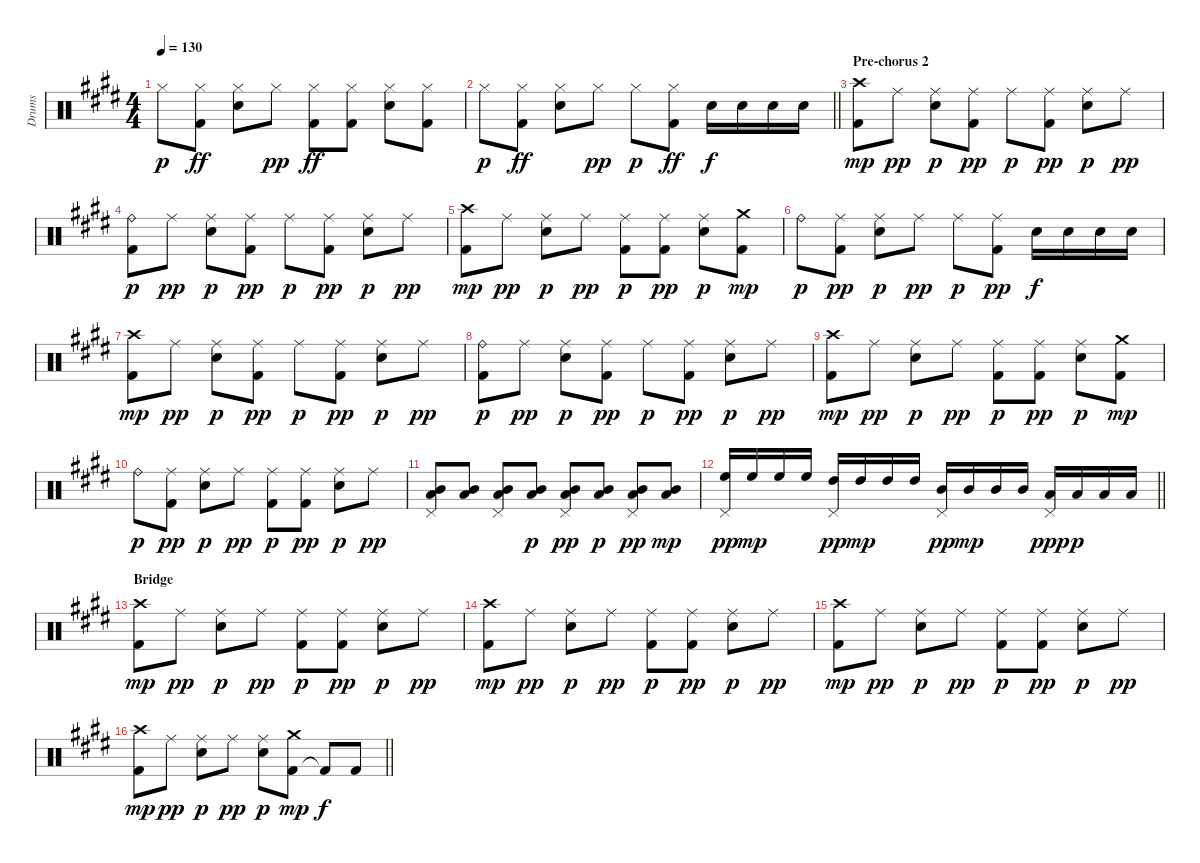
\track ("Drums" "Drums") {instrument percussion}
\staff {score}
\articulation defaults
\ts (4 4)
\tempo 130
\clef neutral
\ks e "Hi-Hat (closed)".8{dy p}
("Hi-Hat (closed)" "Kick (hit) 2").8{dy ff} ("Hi-Hat (closed)" "Electric Snare (hit)").8 "Hi-Hat (closed)".8{dy pp} ("Hi-Hat (closed)" "Kick (hit) 2").8{dy ff} ("Hi-Hat (closed)" "Kick (hit) 2").8 ("Hi-Hat (closed)" "Electric Snare (hit)").8 ("Hi-Hat (closed)" "Kick (hit) 2").8 |
\barLineRight lightlight
\ks c#minor "Hi-Hat (closed)".8{dy p}
("Hi-Hat (closed)" "Kick (hit) 2").8{dy ff} ("Hi-Hat (closed)" "Electric Snare (hit)").8 "Hi-Hat (closed)".8{dy pp} "Hi-Hat (closed)".8{dy p} ("Hi-Hat (closed)" "Kick (hit) 2").8{dy ff} "Electric Snare (hit)".16{dy f} "Electric Snare (hit)".16 "Electric Snare (hit)".16 "Electric Snare (hit)".16 |
\section ("" "Pre-chorus 2")
\ks e
("Crash high (hit)" "Kick (hit) 2").8{dy mp} "Ride (middle)".8{dy pp} ("Ride (middle)" "Electric Snare (hit)").8{dy p} ("Ride (middle)" "Kick (hit) 2").8{dy pp} "Ride (middle)".8{dy p} ("Ride (middle)" "Kick (hit) 2").8{dy pp} ("Ride (middle)" "Electric Snare (hit)").8{dy p} "Ride (middle)".8{dy pp} |
\ks c#minor
("Ride (bell)" "Kick (hit) 2").8{dy p} "Ride (middle)".8{dy pp} ("Ride (middle)" "Electric Snare (hit)").8{dy p} ("Ride (middle)" "Kick (hit) 2").8{dy pp} "Ride (middle)".8{dy p} ("Ride (middle)" "Kick (hit) 2").8{dy pp} ("Ride (middle)" "Electric Snare (hit)").8{dy p} "Ride (middle)".8{dy pp} |
\ks e
("Crash high (hit)" "Kick (hit) 2").8{dy mp} "Ride (middle)".8{dy pp} ("Ride (middle)" "Electric Snare (hit)").8{dy p} "Ride (middle)".8{dy pp} ("Ride (middle)" "Kick (hit) 2").8{dy p} ("Ride (middle)" "Kick (hit) 2").8{dy pp} ("Ride (middle)" "Electric Snare (hit)").8{dy p} ("Crash medium (hit)" "Kick (hit) 2").8{dy mp} |
\ks c#minor "Ride (bell)".8{dy p}
("Ride (middle)" "Kick (hit) 2").8{dy pp} ("Ride (middle)" "Electric Snare (hit)").8{dy p} "Ride (middle)".8{dy pp} "Ride (middle)".8{dy p} ("Ride (middle)" "Kick (hit) 2").8{dy pp} "Electric Snare (hit)".16{dy f} "Electric Snare (hit)".16 "Electric Snare (hit)".16 "Electric Snare (hit)".16 |
\ks e
("Crash high (hit)" "Kick (hit) 2").8{dy mp} "Ride (middle)".8{dy pp} ("Ride (middle)" "Electric Snare (hit)").8{dy p} ("Ride (middle)" "Kick (hit) 2").8{dy pp} "Ride (middle)".8{dy p} ("Ride (middle)" "Kick (hit) 2").8{dy pp} ("Ride (middle)" "Electric Snare (hit)").8{dy p} "Ride (middle)".8{dy pp} |
\ks c#minor
("Ride (bell)" "Kick (hit) 2").8{dy p} "Ride (middle)".8{dy pp} ("Ride (middle)" "Electric Snare (hit)").8{dy p} ("Ride (middle)" "Kick (hit) 2").8{dy pp} "Ride (middle)".8{dy p} ("Ride (middle)" "Kick (hit) 2").8{dy pp} ("Ride (middle)" "Electric Snare (hit)").8{dy p} "Ride (middle)".8{dy pp} |
\ks e
("Crash high (hit)" "Kick (hit) 2").8{dy mp} "Ride (middle)".8{dy pp} ("Ride (middle)" "Electric Snare (hit)").8{dy p} "Ride (middle)".8{dy pp} ("Ride (middle)" "Kick (hit) 2").8{dy p} ("Ride (middle)" "Kick (hit) 2").8{dy pp} ("Ride (middle)" "Electric Snare (hit)").8{dy p} ("Crash medium (hit)" "Kick (hit) 2").8{dy mp} |
\ks c#minor "Ride (bell)".8{dy p}
("Ride (middle)" "Kick (hit) 2").8{dy pp} ("Ride (middle)" "Electric Snare (hit)").8{dy p} "Ride (middle)".8{dy pp} ("Ride (middle)" "Kick (hit) 2").8{dy p} ("Ride (middle)" "Kick (hit) 2").8{dy pp} ("Ride (middle)" "Electric Snare (hit)").8{dy p} "Ride (middle)".8{dy pp} |
\ks e
("Mid Tom (hit)" "Low Tom (hit)" "Pedal Hi-Hat (hit)").8 ("Low Tom (hit)" "Mid Tom (hit)").8 ("Low Tom (hit)" "Mid Tom (hit)" "Pedal Hi-Hat (hit)").8 ("Low Tom (hit)" "Mid Tom (hit)").8{dy p} ("Low Tom (hit)" "Mid Tom (hit)" "Pedal Hi-Hat (hit)").8{dy pp} ("Low Tom (hit)" "Mid Tom (hit)").8{dy p} ("Low Tom (hit)" "Mid Tom (hit)" "Pedal Hi-Hat (hit)").8{dy pp} ("Low Tom (hit)" "Mid Tom (hit)").8{dy mp} |
\barLineRight lightlight
\ks c#minor
("High Floor Tom (hit)" "Pedal Hi-Hat (hit)").16{dy pp} "High Floor Tom (hit)".16{dy mp} "High Floor Tom (hit)".16 "High Floor Tom (hit)".16 ("High Tom (hit)" "Pedal Hi-Hat (hit)").16{dy pp} "High Tom (hit)".16{dy mp} "High Tom (hit)".16 "High Tom (hit)".16 ("Mid Tom (hit)" "Pedal Hi-Hat (hit)").16{dy pp} "Mid Tom (hit)".16{dy mp} "Mid Tom (hit)".16 "Mid Tom (hit)".16 ("Low Tom (hit)" "Pedal Hi-Hat (hit)").16{dy ppp} "Low Tom (hit)".16{dy p} "Low Tom (hit)".16 "Low Tom (hit)".16 |
\section ("" "Bridge")
\ks e
("Crash high (hit)" "Kick (hit) 2").8{dy mp} "Ride (middle)".8{dy pp} ("Ride (middle)" "Electric Snare (hit)").8{dy p} "Ride (middle)".8{dy pp} ("Ride (middle)" "Kick (hit) 2").8{dy p} ("Ride (middle)" "Kick (hit) 2").8{dy pp} ("Ride (middle)" "Electric Snare (hit)").8{dy p} "Ride (middle)".8{dy pp} |
\ks c#minor
("Crash high (hit)" "Kick (hit) 2").8{dy mp} "Ride (middle)".8{dy pp} ("Ride (middle)" "Electric Snare (hit)").8{dy p} "Ride (middle)".8{dy pp} ("Ride (middle)" "Kick (hit) 2").8{dy p} ("Ride (middle)" "Kick (hit) 2").8{dy pp} ("Ride (middle)" "Electric Snare (hit)").8{dy p} "Ride (middle)".8{dy pp} |
\ks e
("Crash high (hit)" "Kick (hit) 2").8{dy mp} "Ride (middle)".8{dy pp} ("Ride (middle)" "Electric Snare (hit)").8{dy p} "Ride (middle)".8{dy pp} ("Ride (middle)" "Kick (hit) 2").8{dy p} ("Ride (middle)" "Kick (hit) 2").8{dy pp} ("Ride (middle)" "Electric Snare (hit)").8{dy p} "Ride (middle)".8{dy pp} |
\barLineRight lightlight
\ks c#minor
("Crash high (hit)" "Kick (hit) 2").8{dy mp} "Ride (middle)".8{dy pp} ("Ride (middle)" "Electric Snare (hit)").8{dy p} "Ride (middle)".8{dy pp} ("Ride (middle)" "Electric Snare (hit)").8{dy p} ("Kick (hit) 2" "Crash medium (hit)").8{dy mp} "Kick (hit) 2"{t}.8{dy f} "Kick (hit) 2".8
